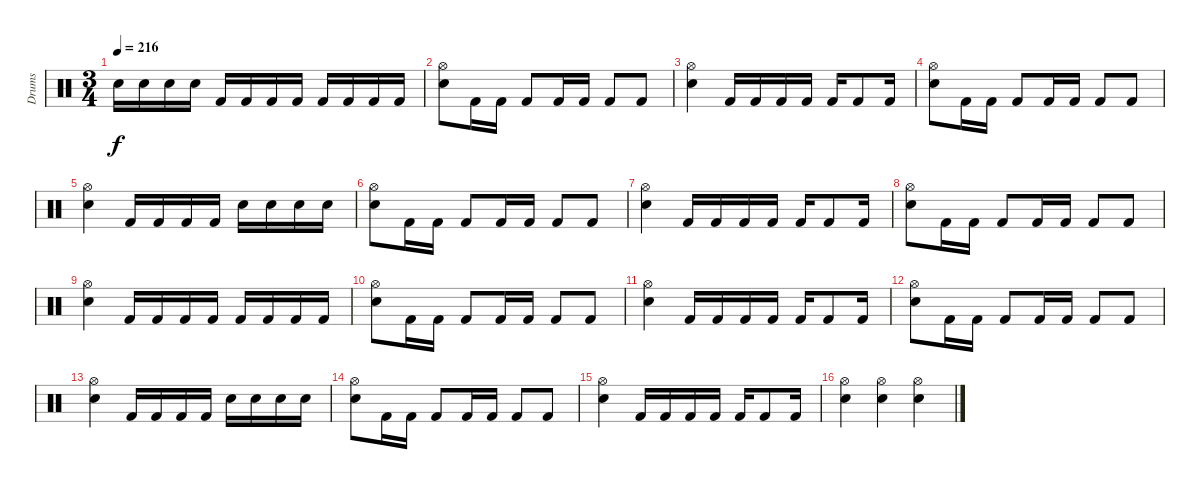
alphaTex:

\track ("Drums" "Drums") {instrument percussion}
\staff {score}
\articulation defaults
\ts (3 4)
\tempo 216
\clef neutral
\ks c "Electric Snare (hit)".16{dy f} "Electric Snare (hit)".16 "Electric Snare (hit)".16 "Electric Snare (hit)".16 "Kick (hit) 2".16 "Kick (hit) 2".16 "Kick (hit) 2".16 "Kick (hit) 2".16 "Kick (hit) 2".16 "Kick (hit) 2".16 "Kick (hit) 2".16 "Kick (hit) 2".16
|
("Hi-Hat (open)" "Electric Snare (hit)").8 "Kick (hit) 2".16 "Kick (hit) 2".16 "Kick (hit) 2".8 "Kick (hit) 2".16 "Kick (hit) 2".16 "Kick (hit) 2".8 "Kick (hit) 2".8 |
("Hi-Hat (open)" "Electric Snare (hit)").4 "Kick (hit) 2".16 "Kick (hit) 2".16 "Kick (hit) 2".16 "Kick (hit) 2".16 "Kick (hit) 2".16 "Kick (hit) 2".8 "Kick (hit) 2".16 |
("Hi-Hat (open)" "Electric Snare (hit)").8 "Kick (hit) 2".16 "Kick (hit) 2".16 "Kick (hit) 2".8 "Kick (hit) 2".16 "Kick (hit) 2".16 "Kick (hit) 2".8 "Kick (hit) 2".8 |
("Hi-Hat (open)" "Electric Snare (hit)").4 "Kick (hit) 2".16 "Kick (hit) 2".16 "Kick (hit) 2".16 "Kick (hit) 2".16 "Electric Snare (hit)".16 "Electric Snare (hit)".16 "Electric Snare (hit)".16 "Electric Snare (hit)".16 |
("Hi-Hat (open)" "Electric Snare (hit)").8 "Kick (hit) 2".16 "Kick (hit) 2".16 "Kick (hit) 2".8 "Kick (hit) 2".16 "Kick (hit) 2".16 "Kick (hit) 2".8 "Kick (hit) 2".8 |
("Hi-Hat (open)" "Electric Snare (hit)").4 "Kick (hit) 2".16 "Kick (hit) 2".16 "Kick (hit) 2".16 "Kick (hit) 2".16 "Kick (hit) 2".16 "Kick (hit) 2".8 "Kick (hit) 2".16 |
("Hi-Hat (open)" "Electric Snare (hit)").8 "Kick (hit) 2".16 "Kick (hit) 2".16 "Kick (hit) 2".8 "Kick (hit) 2".16 "Kick (hit) 2".16 "Kick (hit) 2".8 "Kick (hit) 2".8 |
("Hi-Hat (open)" "Electric Snare (hit)").4 "Kick (hit) 2".16 "Kick (hit) 2".16 "Kick (hit) 2".16 "Kick (hit) 2".16 "Kick (hit) 2".16 "Kick (hit) 2".16 "Kick (hit) 2".16 "Kick (hit) 2".16 |
("Hi-Hat (open)" "Electric Snare (hit)").8 "Kick (hit) 2".16 "Kick (hit) 2".16 "Kick (hit) 2".8 "Kick (hit) 2".16 "Kick (hit) 2".16 "Kick (hit) 2".8 "Kick (hit) 2".8 |
("Hi-Hat (open)" "Electric Snare (hit)").4 "Kick (hit) 2".16 "Kick (hit) 2".16 "Kick (hit) 2".16 "Kick (hit) 2".16 "Kick (hit) 2".16 "Kick (hit) 2".8 "Kick (hit) 2".16 |
("Hi-Hat (open)" "Electric Snare (hit)").8 "Kick (hit) 2".16 "Kick (hit) 2".16 "Kick (hit) 2".8 "Kick (hit) 2".16 "Kick (hit) 2".16 "Kick (hit) 2".8 "Kick (hit) 2".8 |
("Hi-Hat (open)" "Electric Snare (hit)").4 "Kick (hit) 2".16 "Kick (hit) 2".16 "Kick (hit) 2".16 "Kick (hit) 2".16 "Electric Snare (hit)".16 "Electric Snare (hit)".16 "Electric Snare (hit)".16 "Electric Snare (hit)".16 |
("Hi-Hat (open)" "Electric Snare (hit)").8 "Kick (hit) 2".16 "Kick (hit) 2".16 "Kick (hit) 2".8 "Kick (hit) 2".16 "Kick (hit) 2".16 "Kick (hit) 2".8 "Kick (hit) 2".8 |
("Hi-Hat (open)" "Electric Snare (hit)").4 "Kick (hit) 2".16 "Kick (hit) 2".16 "Kick (hit) 2".16 "Kick (hit) 2".16 "Kick (hit) 2".16 "Kick (hit) 2".8 "Kick (hit) 2".16 |
("Hi-Hat (open)" "Electric Snare (hit)").4 ("Hi-Hat (open)" "Electric Snare (hit)").4 ("Hi-Hat (open)" "Electric Snare (hit)").4
